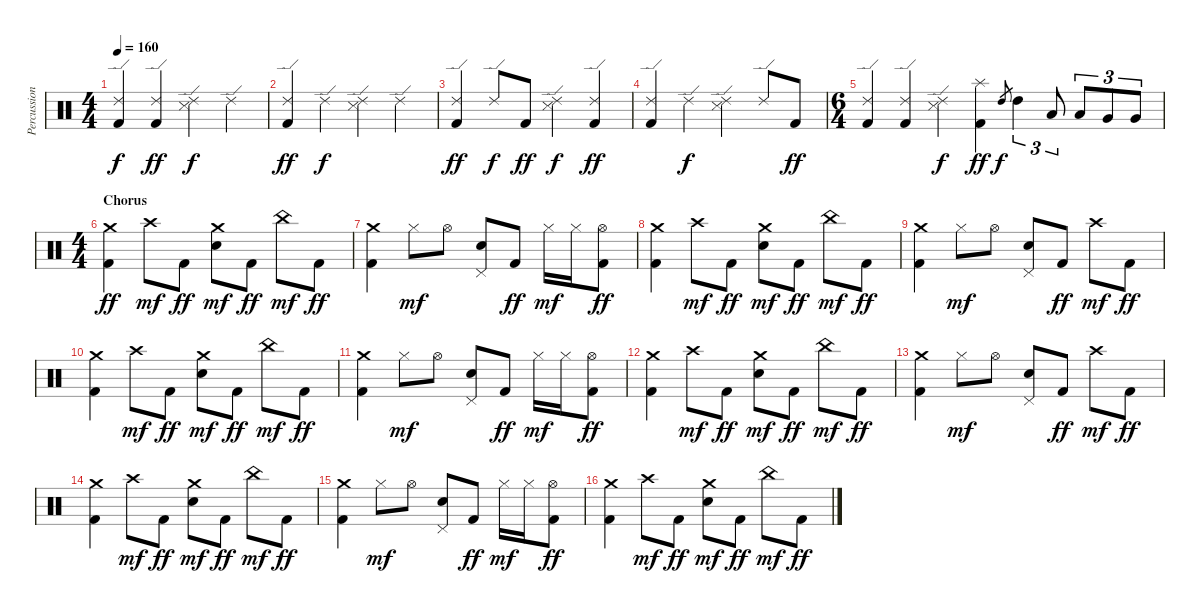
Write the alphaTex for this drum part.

\track ("Percussion" "Percussion") {instrument percussion}
\staff {score}
\articulation defaults
\ts (4 4)
\tempo 160
\clef neutral
\ks c
("Ride (edge) 2" "Kick (hit) 2").4{dy f} ("Ride (edge) 2" "Kick (hit) 2").4{dy ff} ("Ride (edge) 2" "Snare (side stick) 3").4{dy f} "Ride (edge) 2".4 |
("Ride (edge) 2" "Kick (hit) 2").4{dy ff} "Ride (edge) 2".4{dy f} ("Ride (edge) 2" "Snare (side stick) 3").4 "Ride (edge) 2".4 |
("Ride (edge) 2" "Kick (hit) 2").4{dy ff} "Ride (edge) 2".8{dy f} "Kick (hit) 2".8{dy ff} ("Ride (edge) 2" "Snare (side stick) 3").4{dy f} ("Ride (edge) 2" "Kick (hit) 2").4{dy ff} |
("Ride (edge) 2" "Kick (hit) 2").4 "Ride (edge) 2".4{dy f} ("Ride (edge) 2" "Snare (side stick) 3").4 "Ride (edge) 2".8 "Kick (hit) 2".8{dy ff} |
\ts (6 4)
("Ride (edge) 2" "Kick (hit) 2").4 ("Ride (edge) 2" "Kick (hit) 2").4 ("Ride (edge) 2" "Snare (side stick) 3").4{dy f} ("Splash (hit)" "Kick (hit) 2").4{dy ff} "High Tom (hit)".8{gr dy f} "High Tom (hit)".4{tu (3 2)} "Low Tom (hit)".8{tu (3 2)} "Low Tom (hit)".8{tu (3 2)} "Very Low Tom (hit)".8{tu (3 2)} "Very Low Tom (hit)".8{tu (3 2)} |
\ts (4 4)
\section ("" "Chorus")
("Crash medium (hit)" "Kick (hit) 2").4{dy ff} "Crash high (hit)".8{dy mf} "Kick (hit) 2".8{dy ff} ("Crash medium (hit)" "Electric Snare (hit)").8{dy mf} "Kick (hit) 2".8{dy ff} "China (hit)".8{dy mf} "Kick (hit) 2".8{dy ff} |
("Crash medium (hit)" "Kick (hit) 2").4 "Hi-Hat (closed)".8{dy mf} "Hi-Hat (open)".8 ("Pedal Hi-Hat (hit)" "Electric Snare (hit)").8 "Kick (hit) 2".8{dy ff} "Hi-Hat (closed)".16{dy mf} "Hi-Hat (closed)".16 ("Hi-Hat (open)" "Kick (hit) 2").8{dy ff} |
("Crash medium (hit)" "Kick (hit) 2").4 "Crash high (hit)".8{dy mf} "Kick (hit) 2".8{dy ff} ("Crash medium (hit)" "Electric Snare (hit)").8{dy mf} "Kick (hit) 2".8{dy ff} "China (hit)".8{dy mf} "Kick (hit) 2".8{dy ff} |
("Crash medium (hit)" "Kick (hit) 2").4 "Hi-Hat (closed)".8{dy mf} "Hi-Hat (open)".8 ("Pedal Hi-Hat (hit)" "Electric Snare (hit)").8 "Kick (hit) 2".8{dy ff} "Crash high (hit)".8{dy mf} "Kick (hit) 2".8{dy ff} |
("Crash medium (hit)" "Kick (hit) 2").4 "Crash high (hit)".8{dy mf} "Kick (hit) 2".8{dy ff} ("Crash medium (hit)" "Electric Snare (hit)").8{dy mf} "Kick (hit) 2".8{dy ff} "China (hit)".8{dy mf} "Kick (hit) 2".8{dy ff} |
("Crash medium (hit)" "Kick (hit) 2").4 "Hi-Hat (closed)".8{dy mf} "Hi-Hat (open)".8 ("Pedal Hi-Hat (hit)" "Electric Snare (hit)").8 "Kick (hit) 2".8{dy ff} "Hi-Hat (closed)".16{dy mf} "Hi-Hat (closed)".16 ("Hi-Hat (open)" "Kick (hit) 2").8{dy ff} |
("Crash medium (hit)" "Kick (hit) 2").4 "Crash high (hit)".8{dy mf} "Kick (hit) 2".8{dy ff} ("Crash medium (hit)" "Electric Snare (hit)").8{dy mf} "Kick (hit) 2".8{dy ff} "China (hit)".8{dy mf} "Kick (hit) 2".8{dy ff} |
("Crash medium (hit)" "Kick (hit) 2").4 "Hi-Hat (closed)".8{dy mf} "Hi-Hat (open)".8 ("Pedal Hi-Hat (hit)" "Electric Snare (hit)").8 "Kick (hit) 2".8{dy ff} "Crash high (hit)".8{dy mf} "Kick (hit) 2".8{dy ff} |
("Crash medium (hit)" "Kick (hit) 2").4 "Crash high (hit)".8{dy mf} "Kick (hit) 2".8{dy ff} ("Crash medium (hit)" "Electric Snare (hit)").8{dy mf} "Kick (hit) 2".8{dy ff} "China (hit)".8{dy mf} "Kick (hit) 2".8{dy ff} |
("Crash medium (hit)" "Kick (hit) 2").4 "Hi-Hat (closed)".8{dy mf} "Hi-Hat (open)".8 ("Pedal Hi-Hat (hit)" "Electric Snare (hit)").8 "Kick (hit) 2".8{dy ff} "Hi-Hat (closed)".16{dy mf} "Hi-Hat (closed)".16 ("Hi-Hat (open)" "Kick (hit) 2").8{dy ff} |
("Crash medium (hit)" "Kick (hit) 2").4 "Crash high (hit)".8{dy mf} "Kick (hit) 2".8{dy ff} ("Crash medium (hit)" "Electric Snare (hit)").8{dy mf} "Kick (hit) 2".8{dy ff} "China (hit)".8{dy mf} "Kick (hit) 2".8{dy ff}
